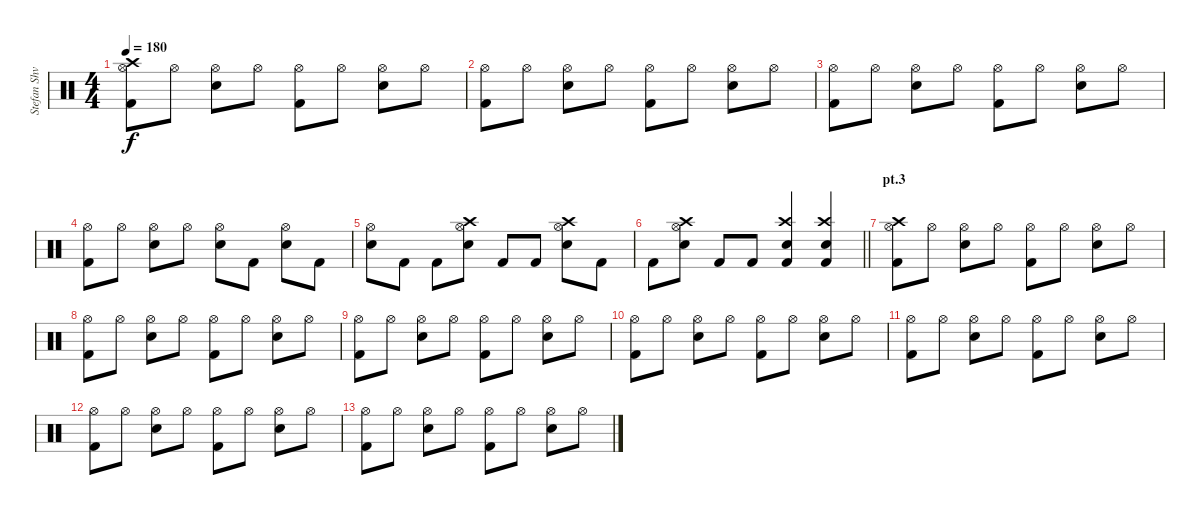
\track ("Stefan Shvartsman" "Stefan Shv") {instrument percussion}
\staff {score}
\articulation defaults
\ts (4 4)
\tempo 180
\clef neutral
\ks c
("Hi-Hat (open)" "Kick (hit) 2" "Crash high (hit)").8{dy f} "Hi-Hat (open)".8 ("Hi-Hat (open)" "Snare (hit) 2").8 "Hi-Hat (open)".8 ("Hi-Hat (open)" "Kick (hit) 2").8 "Hi-Hat (open)".8 ("Hi-Hat (open)" "Snare (hit) 2").8 "Hi-Hat (open)".8 |
("Hi-Hat (open)" "Kick (hit) 2").8 "Hi-Hat (open)".8 ("Hi-Hat (open)" "Snare (hit) 2").8 "Hi-Hat (open)".8 ("Hi-Hat (open)" "Kick (hit) 2").8 "Hi-Hat (open)".8 ("Hi-Hat (open)" "Snare (hit) 2").8 "Hi-Hat (open)".8 |
("Hi-Hat (open)" "Kick (hit) 2").8 "Hi-Hat (open)".8 ("Hi-Hat (open)" "Snare (hit) 2").8 "Hi-Hat (open)".8 ("Hi-Hat (open)" "Kick (hit) 2").8 "Hi-Hat (open)".8 ("Hi-Hat (open)" "Snare (hit) 2").8 "Hi-Hat (open)".8 |
("Hi-Hat (open)" "Kick (hit) 2").8 "Hi-Hat (open)".8 ("Hi-Hat (open)" "Snare (hit) 2").8 "Hi-Hat (open)".8 ("Hi-Hat (open)" "Snare (hit) 2").8 "Kick (hit) 2".8 ("Hi-Hat (open)" "Snare (hit) 2").8 "Kick (hit) 2".8 |
("Hi-Hat (open)" "Snare (hit) 2").8 "Kick (hit) 2".8 "Kick (hit) 2".8 ("Hi-Hat (open)" "Snare (hit) 2" "Crash high (hit)").8 "Kick (hit) 2".8 "Kick (hit) 2".8 ("Hi-Hat (open)" "Snare (hit) 2" "Crash high (hit)").8 "Kick (hit) 2".8 |
\barLineRight lightlight "Kick (hit) 2".8
("Hi-Hat (open)" "Snare (hit) 2" "Crash high (hit)").8 "Kick (hit) 2".8 "Kick (hit) 2".8 ("Crash high (hit)" "Snare (hit) 2" "Kick (hit) 2").4 ("Crash high (hit)" "Snare (hit) 2" "Kick (hit) 2").4 |
\section ("" "pt.3")
("Hi-Hat (open)" "Kick (hit) 2" "Crash high (hit)").8 "Hi-Hat (open)".8 ("Hi-Hat (open)" "Snare (hit) 2").8 "Hi-Hat (open)".8 ("Hi-Hat (open)" "Kick (hit) 2").8 "Hi-Hat (open)".8 ("Hi-Hat (open)" "Snare (hit) 2").8 "Hi-Hat (open)".8 |
("Hi-Hat (open)" "Kick (hit) 2").8 "Hi-Hat (open)".8 ("Hi-Hat (open)" "Snare (hit) 2").8 "Hi-Hat (open)".8 ("Hi-Hat (open)" "Kick (hit) 2").8 "Hi-Hat (open)".8 ("Hi-Hat (open)" "Snare (hit) 2").8 "Hi-Hat (open)".8 |
("Hi-Hat (open)" "Kick (hit) 2").8 "Hi-Hat (open)".8 ("Hi-Hat (open)" "Snare (hit) 2").8 "Hi-Hat (open)".8 ("Hi-Hat (open)" "Kick (hit) 2").8 "Hi-Hat (open)".8 ("Hi-Hat (open)" "Snare (hit) 2").8 "Hi-Hat (open)".8 |
("Hi-Hat (open)" "Kick (hit) 2").8 "Hi-Hat (open)".8 ("Hi-Hat (open)" "Snare (hit) 2").8 "Hi-Hat (open)".8 ("Hi-Hat (open)" "Kick (hit) 2").8 "Hi-Hat (open)".8 ("Hi-Hat (open)" "Snare (hit) 2").8 "Hi-Hat (open)".8 |
("Hi-Hat (open)" "Kick (hit) 2").8 "Hi-Hat (open)".8 ("Hi-Hat (open)" "Snare (hit) 2").8 "Hi-Hat (open)".8 ("Hi-Hat (open)" "Kick (hit) 2").8 "Hi-Hat (open)".8 ("Hi-Hat (open)" "Snare (hit) 2").8 "Hi-Hat (open)".8 |
("Hi-Hat (open)" "Kick (hit) 2").8 "Hi-Hat (open)".8 ("Hi-Hat (open)" "Snare (hit) 2").8 "Hi-Hat (open)".8 ("Hi-Hat (open)" "Kick (hit) 2").8 "Hi-Hat (open)".8 ("Hi-Hat (open)" "Snare (hit) 2").8 "Hi-Hat (open)".8 |
("Hi-Hat (open)" "Kick (hit) 2").8 "Hi-Hat (open)".8 ("Hi-Hat (open)" "Snare (hit) 2").8 "Hi-Hat (open)".8 ("Hi-Hat (open)" "Kick (hit) 2").8 "Hi-Hat (open)".8 ("Hi-Hat (open)" "Snare (hit) 2").8 "Hi-Hat (open)".8
